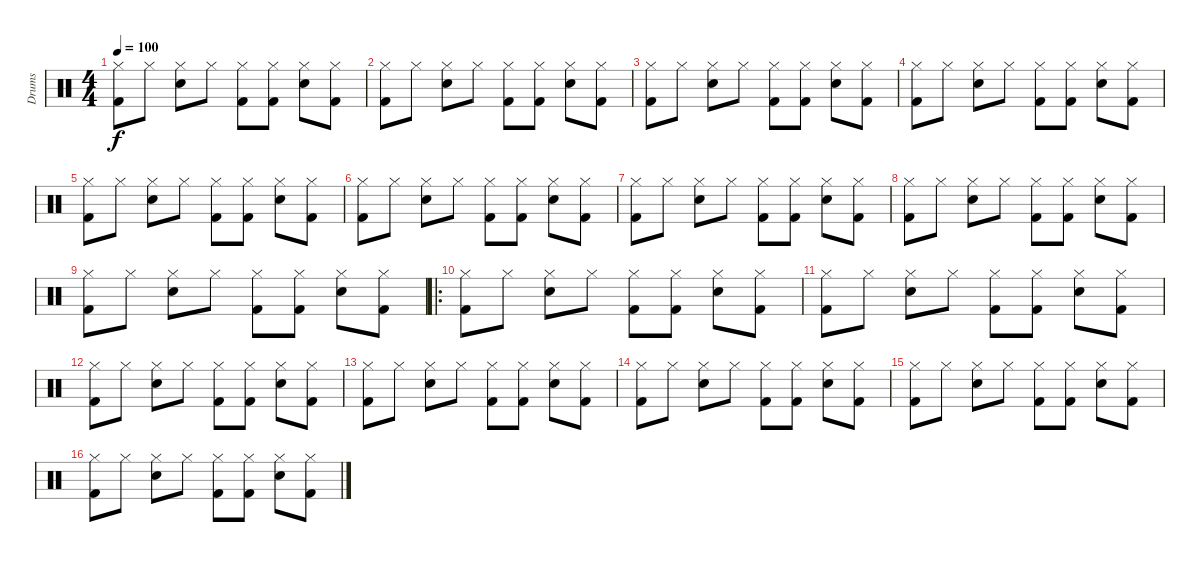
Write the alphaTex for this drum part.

\track ("Drums" "Drums") {instrument percussion}
\staff {score}
\articulation defaults
\ts (4 4)
\tempo 100
\clef neutral
\ks c
("Hi-Hat (closed)" "Kick (hit) 2").8{dy f} "Hi-Hat (closed)".8 ("Hi-Hat (closed)" "Snare (hit) 2").8 "Hi-Hat (closed)".8 ("Hi-Hat (closed)" "Kick (hit) 2").8 ("Hi-Hat (closed)" "Kick (hit) 2").8 ("Hi-Hat (closed)" "Snare (hit) 2").8 ("Hi-Hat (closed)" "Kick (hit) 2").8 |
("Hi-Hat (closed)" "Kick (hit) 2").8 "Hi-Hat (closed)".8 ("Hi-Hat (closed)" "Snare (hit) 2").8 "Hi-Hat (closed)".8 ("Hi-Hat (closed)" "Kick (hit) 2").8 ("Hi-Hat (closed)" "Kick (hit) 2").8 ("Hi-Hat (closed)" "Snare (hit) 2").8 ("Hi-Hat (closed)" "Kick (hit) 2").8 |
("Hi-Hat (closed)" "Kick (hit) 2").8 "Hi-Hat (closed)".8 ("Hi-Hat (closed)" "Snare (hit) 2").8 "Hi-Hat (closed)".8 ("Hi-Hat (closed)" "Kick (hit) 2").8 ("Hi-Hat (closed)" "Kick (hit) 2").8 ("Hi-Hat (closed)" "Snare (hit) 2").8 ("Hi-Hat (closed)" "Kick (hit) 2").8 |
("Hi-Hat (closed)" "Kick (hit) 2").8 "Hi-Hat (closed)".8 ("Hi-Hat (closed)" "Snare (hit) 2").8 "Hi-Hat (closed)".8 ("Hi-Hat (closed)" "Kick (hit) 2").8 ("Hi-Hat (closed)" "Kick (hit) 2").8 ("Hi-Hat (closed)" "Snare (hit) 2").8 ("Hi-Hat (closed)" "Kick (hit) 2").8 |
("Hi-Hat (closed)" "Kick (hit) 2").8 "Hi-Hat (closed)".8 ("Hi-Hat (closed)" "Snare (hit) 2").8 "Hi-Hat (closed)".8 ("Hi-Hat (closed)" "Kick (hit) 2").8 ("Hi-Hat (closed)" "Kick (hit) 2").8 ("Hi-Hat (closed)" "Snare (hit) 2").8 ("Hi-Hat (closed)" "Kick (hit) 2").8 |
("Hi-Hat (closed)" "Kick (hit) 2").8 "Hi-Hat (closed)".8 ("Hi-Hat (closed)" "Snare (hit) 2").8 "Hi-Hat (closed)".8 ("Hi-Hat (closed)" "Kick (hit) 2").8 ("Hi-Hat (closed)" "Kick (hit) 2").8 ("Hi-Hat (closed)" "Snare (hit) 2").8 ("Hi-Hat (closed)" "Kick (hit) 2").8 |
("Hi-Hat (closed)" "Kick (hit) 2").8 "Hi-Hat (closed)".8 ("Hi-Hat (closed)" "Snare (hit) 2").8 "Hi-Hat (closed)".8 ("Hi-Hat (closed)" "Kick (hit) 2").8 ("Hi-Hat (closed)" "Kick (hit) 2").8 ("Hi-Hat (closed)" "Snare (hit) 2").8 ("Hi-Hat (closed)" "Kick (hit) 2").8 |
("Hi-Hat (closed)" "Kick (hit) 2").8 "Hi-Hat (closed)".8 ("Hi-Hat (closed)" "Snare (hit) 2").8 "Hi-Hat (closed)".8 ("Hi-Hat (closed)" "Kick (hit) 2").8 ("Hi-Hat (closed)" "Kick (hit) 2").8 ("Hi-Hat (closed)" "Snare (hit) 2").8 ("Hi-Hat (closed)" "Kick (hit) 2").8 |
("Hi-Hat (closed)" "Kick (hit) 2").8 "Hi-Hat (closed)".8 ("Hi-Hat (closed)" "Snare (hit) 2").8 "Hi-Hat (closed)".8 ("Hi-Hat (closed)" "Kick (hit) 2").8 ("Hi-Hat (closed)" "Kick (hit) 2").8 ("Hi-Hat (closed)" "Snare (hit) 2").8 ("Hi-Hat (closed)" "Kick (hit) 2").8 |
\ro
("Hi-Hat (closed)" "Kick (hit) 2").8 "Hi-Hat (closed)".8 ("Hi-Hat (closed)" "Snare (hit) 2").8 "Hi-Hat (closed)".8 ("Hi-Hat (closed)" "Kick (hit) 2").8 ("Hi-Hat (closed)" "Kick (hit) 2").8 ("Hi-Hat (closed)" "Snare (hit) 2").8 ("Hi-Hat (closed)" "Kick (hit) 2").8 |
("Hi-Hat (closed)" "Kick (hit) 2").8 "Hi-Hat (closed)".8 ("Hi-Hat (closed)" "Snare (hit) 2").8 "Hi-Hat (closed)".8 ("Hi-Hat (closed)" "Kick (hit) 2").8 ("Hi-Hat (closed)" "Kick (hit) 2").8 ("Hi-Hat (closed)" "Snare (hit) 2").8 ("Hi-Hat (closed)" "Kick (hit) 2").8 |
("Hi-Hat (closed)" "Kick (hit) 2").8 "Hi-Hat (closed)".8 ("Hi-Hat (closed)" "Snare (hit) 2").8 "Hi-Hat (closed)".8 ("Hi-Hat (closed)" "Kick (hit) 2").8 ("Hi-Hat (closed)" "Kick (hit) 2").8 ("Hi-Hat (closed)" "Snare (hit) 2").8 ("Hi-Hat (closed)" "Kick (hit) 2").8 |
("Hi-Hat (closed)" "Kick (hit) 2").8 "Hi-Hat (closed)".8 ("Hi-Hat (closed)" "Snare (hit) 2").8 "Hi-Hat (closed)".8 ("Hi-Hat (closed)" "Kick (hit) 2").8 ("Hi-Hat (closed)" "Kick (hit) 2").8 ("Hi-Hat (closed)" "Snare (hit) 2").8 ("Hi-Hat (closed)" "Kick (hit) 2").8 |
("Hi-Hat (closed)" "Kick (hit) 2").8 "Hi-Hat (closed)".8 ("Hi-Hat (closed)" "Snare (hit) 2").8 "Hi-Hat (closed)".8 ("Hi-Hat (closed)" "Kick (hit) 2").8 ("Hi-Hat (closed)" "Kick (hit) 2").8 ("Hi-Hat (closed)" "Snare (hit) 2").8 ("Hi-Hat (closed)" "Kick (hit) 2").8 |
("Hi-Hat (closed)" "Kick (hit) 2").8 "Hi-Hat (closed)".8 ("Hi-Hat (closed)" "Snare (hit) 2").8 "Hi-Hat (closed)".8 ("Hi-Hat (closed)" "Kick (hit) 2").8 ("Hi-Hat (closed)" "Kick (hit) 2").8 ("Hi-Hat (closed)" "Snare (hit) 2").8 ("Hi-Hat (closed)" "Kick (hit) 2").8 |
("Hi-Hat (closed)" "Kick (hit) 2").8 "Hi-Hat (closed)".8 ("Hi-Hat (closed)" "Snare (hit) 2").8 "Hi-Hat (closed)".8 ("Hi-Hat (closed)" "Kick (hit) 2").8 ("Hi-Hat (closed)" "Kick (hit) 2").8 ("Hi-Hat (closed)" "Snare (hit) 2").8 ("Hi-Hat (closed)" "Kick (hit) 2").8
